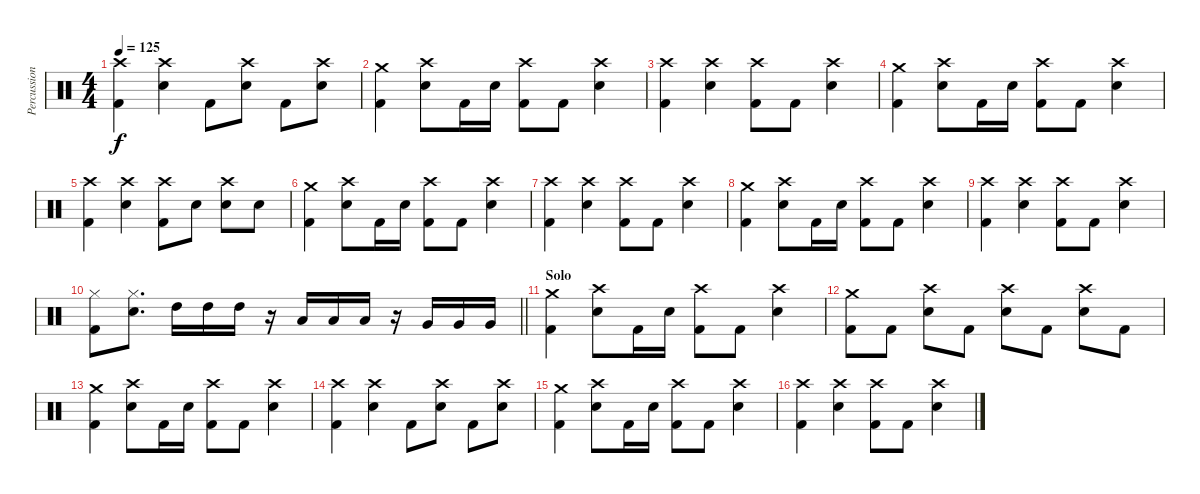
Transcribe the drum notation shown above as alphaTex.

\track ("Percussion" "Percussion") {instrument percussion}
\staff {score}
\articulation defaults
\ts (4 4)
\tempo 125
\clef neutral
\ks c
("Kick (hit) 2" "Crash high (hit)").4{dy f} ("Electric Snare (hit)" "Crash high (hit)").4 "Kick (hit) 2".8 ("Electric Snare (hit)" "Crash high (hit)").8 "Kick (hit) 2".8 ("Electric Snare (hit)" "Crash high (hit)").8 |
("Kick (hit) 2" "Crash medium (hit)").4 ("Electric Snare (hit)" "Crash high (hit)").8 "Kick (hit) 2".16 "Electric Snare (hit)".16 ("Kick (hit) 2" "Crash high (hit)").8 "Kick (hit) 2".8 ("Electric Snare (hit)" "Crash high (hit)").4 |
("Kick (hit) 2" "Crash high (hit)").4 ("Electric Snare (hit)" "Crash high (hit)").4 ("Kick (hit) 2" "Crash high (hit)").8 "Kick (hit) 2".8 ("Electric Snare (hit)" "Crash high (hit)").4 |
("Kick (hit) 2" "Crash medium (hit)").4 ("Electric Snare (hit)" "Crash high (hit)").8 "Kick (hit) 2".16 "Electric Snare (hit)".16 ("Kick (hit) 2" "Crash high (hit)").8 "Kick (hit) 2".8 ("Electric Snare (hit)" "Crash high (hit)").4 |
("Kick (hit) 2" "Crash high (hit)").4 ("Electric Snare (hit)" "Crash high (hit)").4 ("Kick (hit) 2" "Crash high (hit)").8 "Electric Snare (hit)".8 ("Electric Snare (hit)" "Crash high (hit)").8 "Electric Snare (hit)".8 |
("Kick (hit) 2" "Crash medium (hit)").4 ("Electric Snare (hit)" "Crash high (hit)").8 "Kick (hit) 2".16 "Electric Snare (hit)".16 ("Kick (hit) 2" "Crash high (hit)").8 "Kick (hit) 2".8 ("Electric Snare (hit)" "Crash high (hit)").4 |
("Kick (hit) 2" "Crash high (hit)").4 ("Electric Snare (hit)" "Crash high (hit)").4 ("Kick (hit) 2" "Crash high (hit)").8 "Kick (hit) 2".8 ("Electric Snare (hit)" "Crash high (hit)").4 |
("Kick (hit) 2" "Crash medium (hit)").4 ("Electric Snare (hit)" "Crash high (hit)").8 "Kick (hit) 2".16 "Electric Snare (hit)".16 ("Kick (hit) 2" "Crash high (hit)").8 "Kick (hit) 2".8 ("Electric Snare (hit)" "Crash high (hit)").4 |
("Kick (hit) 2" "Crash high (hit)").4 ("Electric Snare (hit)" "Crash high (hit)").4 ("Kick (hit) 2" "Crash high (hit)").8 "Kick (hit) 2".8 ("Electric Snare (hit)" "Crash high (hit)").4 |
\barLineRight lightlight
("Kick (hit) 2" "Hi-Hat (closed)").8 ("Electric Snare (hit)" "Hi-Hat (closed)").8{d} "High Tom (hit)".16 "High Tom (hit)".16 "High Tom (hit)".16 r.16 "Low Tom (hit)".16 "Low Tom (hit)".16 "Low Tom (hit)".16 r.16 "Very Low Tom (hit)".16 "Very Low Tom (hit)".16 "Very Low Tom (hit)".16 |
\section ("" "Solo")
("Kick (hit) 2" "Crash medium (hit)").4 ("Electric Snare (hit)" "Crash high (hit)").8 "Kick (hit) 2".16 "Electric Snare (hit)".16 ("Kick (hit) 2" "Crash high (hit)").8 "Kick (hit) 2".8 ("Electric Snare (hit)" "Crash high (hit)").4 |
("Kick (hit) 2" "Crash medium (hit)").8 "Kick (hit) 2".8 ("Electric Snare (hit)" "Crash high (hit)").8 "Kick (hit) 2".8 ("Electric Snare (hit)" "Crash high (hit)").8 "Kick (hit) 2".8 ("Electric Snare (hit)" "Crash high (hit)").8 "Kick (hit) 2".8 |
("Kick (hit) 2" "Crash medium (hit)").4 ("Electric Snare (hit)" "Crash high (hit)").8 "Kick (hit) 2".16 "Electric Snare (hit)".16 ("Kick (hit) 2" "Crash high (hit)").8 "Kick (hit) 2".8 ("Electric Snare (hit)" "Crash high (hit)").4 |
("Kick (hit) 2" "Crash high (hit)").4 ("Electric Snare (hit)" "Crash high (hit)").4 "Kick (hit) 2".8 ("Electric Snare (hit)" "Crash high (hit)").8 "Kick (hit) 2".8 ("Electric Snare (hit)" "Crash high (hit)").8 |
("Kick (hit) 2" "Crash medium (hit)").4 ("Electric Snare (hit)" "Crash high (hit)").8 "Kick (hit) 2".16 "Electric Snare (hit)".16 ("Kick (hit) 2" "Crash high (hit)").8 "Kick (hit) 2".8 ("Electric Snare (hit)" "Crash high (hit)").4 |
("Kick (hit) 2" "Crash high (hit)").4 ("Electric Snare (hit)" "Crash high (hit)").4 ("Kick (hit) 2" "Crash high (hit)").8 "Kick (hit) 2".8 ("Electric Snare (hit)" "Crash high (hit)").4
